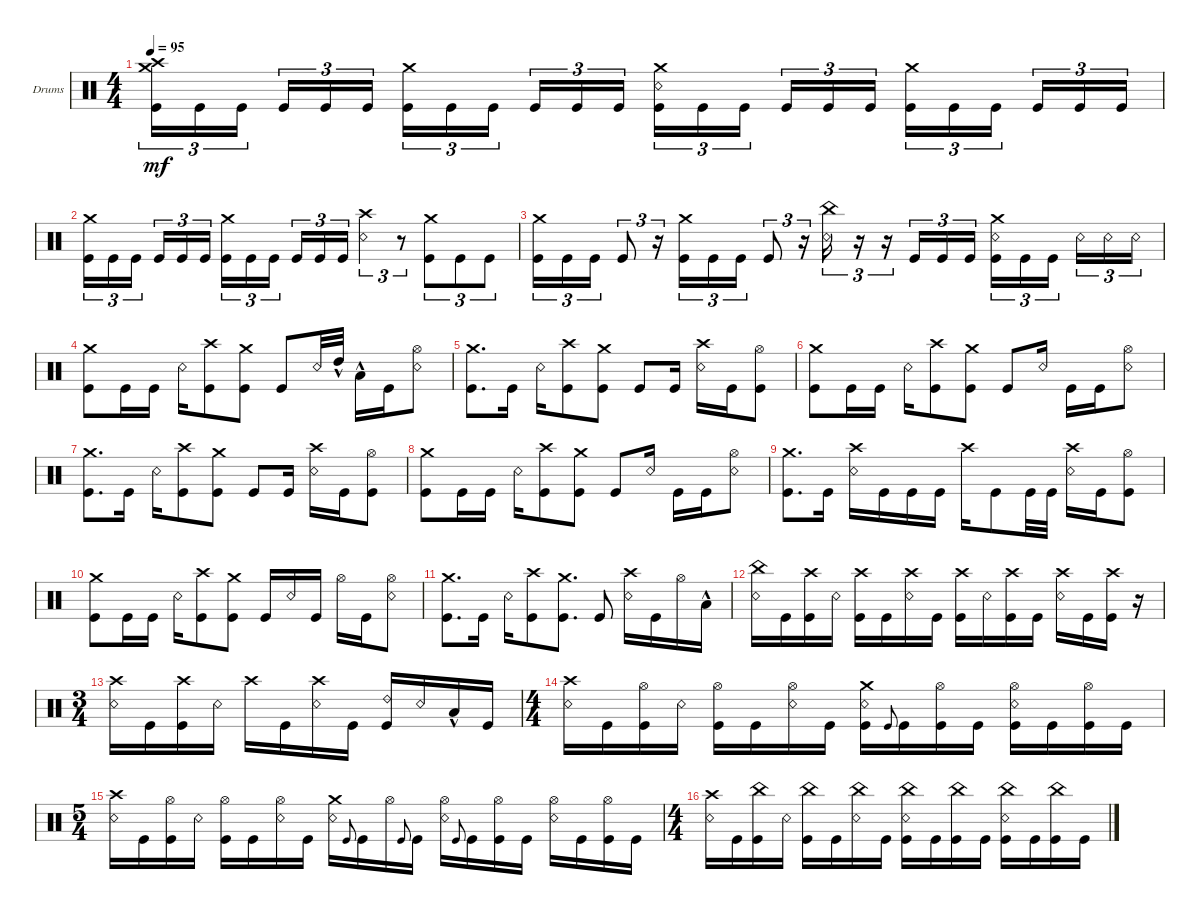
\defaultSystemsLayout 4
\bracketExtendMode groupsimilarinstruments
\firstSystemTrackNameOrientation horizontal
\otherSystemsTrackNameOrientation horizontal
\track ("Drumkit" "Drums") {instrument percussion}
\staff {score}
\articulation defaults
\ts (4 4)
\tempo 95
\clef neutral
\ks c
("Crash high (hit)" "Crash medium (hit)" "Kick (hit)").16{tu (3 2) dy mf} "Kick (hit)".16{tu (3 2)} "Kick (hit)".16{tu (3 2)} "Kick (hit)".16{tu (3 2)} "Kick (hit)".16{tu (3 2)} "Kick (hit)".16{tu (3 2)} ("Kick (hit)" "Crash medium (hit)").16{tu (3 2)} "Kick (hit)".16{tu (3 2)} "Kick (hit)".16{tu (3 2)} "Kick (hit)".16{tu (3 2)} "Kick (hit)".16{tu (3 2)} "Kick (hit)".16{tu (3 2)} ("Crash medium (hit)" "Kick (hit)" "Snare (rim shot)").16{tu (3 2)} "Kick (hit)".16{tu (3 2)} "Kick (hit)".16{tu (3 2)} "Kick (hit)".16{tu (3 2)} "Kick (hit)".16{tu (3 2)} "Kick (hit)".16{tu (3 2)} ("Kick (hit)" "Crash medium (hit)").16{tu (3 2)} "Kick (hit)".16{tu (3 2)} "Kick (hit)".16{tu (3 2)} "Kick (hit)".16{tu (3 2)} "Kick (hit)".16{tu (3 2)} "Kick (hit)".16{tu (3 2)} |
("Crash medium (hit)" "Kick (hit)").16{tu (3 2)} "Kick (hit)".16{tu (3 2)} "Kick (hit)".16{tu (3 2)} "Kick (hit)".16{tu (3 2)} "Kick (hit)".16{tu (3 2)} "Kick (hit)".16{tu (3 2)} ("Crash medium (hit)" "Kick (hit)").16{tu (3 2)} "Kick (hit)".16{tu (3 2)} "Kick (hit)".16{tu (3 2)} "Kick (hit)".16{tu (3 2)} "Kick (hit)".16{tu (3 2)} "Kick (hit)".16{tu (3 2)} ("Snare (rim shot)" "Crash high (hit)").4{tu (3 2)} r.8{tu (3 2)} ("Kick (hit)" "Crash medium (hit)").8{tu (3 2)} "Kick (hit)".8{tu (3 2)} "Kick (hit)".8{tu (3 2)} |
("Kick (hit)" "Crash medium (hit)").16{tu (3 2)} "Kick (hit)".16{tu (3 2)} "Kick (hit)".16{tu (3 2)} "Kick (hit)".8{tu (3 2)} r.16{tu (3 2)} ("Kick (hit)" "Crash medium (hit)").16{tu (3 2)} "Kick (hit)".16{tu (3 2)} "Kick (hit)".16{tu (3 2)} "Kick (hit)".8{tu (3 2)} r.16{tu (3 2)} ("Snare (rim shot)" "China (hit)").16{tu (3 2)} r.16{tu (3 2)} r.16{tu (3 2)} "Kick (hit)".16{tu (3 2)} "Kick (hit)".16{tu (3 2)} "Kick (hit)".16{tu (3 2)} ("Kick (hit)" "Crash medium (hit)" "Snare (rim shot)").16{tu (3 2)} "Kick (hit)".16{tu (3 2)} "Kick (hit)".16{tu (3 2)} "Snare (rim shot)".16{tu (3 2)} "Snare (rim shot)".16{tu (3 2)} "Snare (rim shot)".16{tu (3 2)} |
("Kick (hit)" "Crash medium (hit)").8 "Kick (hit)".16 "Kick (hit)".16 "Snare (rim shot)".16 ("Kick (hit)" "Crash high (hit)").8 ("Kick (hit)" "Crash medium (hit)").8 "Kick (hit)".8 "Snare (rim shot)".32 "High Tom (hit)"{hac}.32 "Low Tom (hit)"{hac}.16 "Kick (hit)".16 ("Snare (rim shot)" "Hi-Hat (open)").8 |
("Kick (hit)" "Crash medium (hit)").8{d} "Kick (hit)".16 "Snare (rim shot)".16 ("Kick (hit)" "Crash high (hit)").8 ("Kick (hit)" "Crash medium (hit)").8 "Kick (hit)".8 "Kick (hit)".16 ("Snare (rim shot)" "Crash high (hit)").16 "Kick (hit)".16 ("Hi-Hat (open)" "Kick (hit)").8 |
("Kick (hit)" "Crash medium (hit)").8 "Kick (hit)".16 "Kick (hit)".16 "Snare (rim shot)".16 ("Kick (hit)" "Crash high (hit)").8 ("Kick (hit)" "Crash medium (hit)").8 "Kick (hit)".8 "Snare (rim shot)".16 "Kick (hit)".16 "Kick (hit)".16 ("Snare (rim shot)" "Hi-Hat (open)").8 |
("Kick (hit)" "Crash medium (hit)").8{d} "Kick (hit)".16 "Snare (rim shot)".16 ("Kick (hit)" "Crash high (hit)").8 ("Kick (hit)" "Crash medium (hit)").8 "Kick (hit)".8 "Kick (hit)".16 ("Snare (rim shot)" "Crash high (hit)").16 "Kick (hit)".16 ("Hi-Hat (open)" "Kick (hit)").8 |
("Kick (hit)" "Crash medium (hit)").8 "Kick (hit)".16 "Kick (hit)".16 "Snare (rim shot)".16 ("Kick (hit)" "Crash high (hit)").8 ("Kick (hit)" "Crash medium (hit)").8 "Kick (hit)".8 "Snare (rim shot)".16 "Kick (hit)".16 "Kick (hit)".16 ("Snare (rim shot)" "Hi-Hat (open)").8 |
("Kick (hit)" "Crash medium (hit)").8{d} "Kick (hit)".16 ("Snare (rim shot)" "Crash high (hit)").16 "Kick (hit)".16 "Kick (hit)".16 "Kick (hit)".16 "Crash high (hit)".16 "Kick (hit)".8 "Kick (hit)".32 "Kick (hit)".32 ("Snare (rim shot)" "Crash high (hit)").16 "Kick (hit)".16 ("Hi-Hat (open)" "Kick (hit)").8 |
("Kick (hit)" "Crash medium (hit)").8 "Kick (hit)".16 "Kick (hit)".16 "Snare (rim shot)".16 ("Kick (hit)" "Crash high (hit)").8 ("Kick (hit)" "Crash medium (hit)").8 "Kick (hit)".16 "Snare (rim shot)".16 "Kick (hit)".16 "Hi-Hat (open)".16 "Kick (hit)".16 ("Snare (rim shot)" "Hi-Hat (open)").8 |
("Kick (hit)" "Crash medium (hit)").8{d} "Kick (hit)".16 "Snare (rim shot)".16 ("Kick (hit)" "Crash high (hit)").8 ("Kick (hit)" "Crash medium (hit)").8{d} "Kick (hit)".8 ("Crash high (hit)" "Snare (rim shot)").16 "Kick (hit)".16 "Hi-Hat (open)".16 "Low Tom (hit)"{hac}.16 |
("Snare (rim shot)" "China (hit)").16 "Kick (hit)".16 ("Kick (hit)" "Crash high (hit)").16 "Snare (rim shot)".16 ("Kick (hit)" "Crash high (hit)").16 "Kick (hit)".16 ("Snare (rim shot)" "Crash high (hit)").16 "Kick (hit)".16 ("Kick (hit)" "Crash high (hit)").16 "Snare (rim shot)".16 ("Kick (hit)" "Crash high (hit)").16 "Kick (hit)".16 ("Snare (rim shot)" "Crash high (hit)").16 "Kick (hit)".16 ("Kick (hit)" "Crash high (hit)").16 r.16 |
\ts (3 4)
("Snare (rim shot)" "Crash high (hit)").16 "Kick (hit)".16 ("Kick (hit)" "Crash high (hit)").16 "Snare (rim shot)".16 "Crash high (hit)".16 "Kick (hit)".16 ("Snare (rim shot)" "Crash high (hit)").16 "Kick (hit)".16 ("Kick (hit)" "Ride (bell) 2").16 "Snare (rim shot)".16 "Low Tom (hit)"{hac}.16 "Kick (hit)".16 |
\ts (4 4)
("Snare (rim shot)" "Crash high (hit)").16 "Kick (hit)".16 ("Kick (hit)" "Hi-Hat (open)").16 "Snare (rim shot)".16 ("Hi-Hat (open)" "Kick (hit)").16 "Kick (hit)".16 ("Snare (rim shot)" "Hi-Hat (open)").16 "Kick (hit)".16 ("Kick (hit)" "Snare (rim shot)" "Crash medium (hit)").16 "Kick (hit)".8{gr onbeat} "Kick (hit)".16 ("Hi-Hat (open)" "Kick (hit)").16 "Kick (hit)".16 ("Snare (rim shot)" "Hi-Hat (open)" "Kick (hit)").16 "Kick (hit)".16 ("Hi-Hat (open)" "Kick (hit)").16 "Kick (hit)".16 |
\ts (5 4)
("Snare (rim shot)" "Crash high (hit)").16 "Kick (hit)".16 ("Kick (hit)" "Hi-Hat (open)").16 "Snare (rim shot)".16 ("Hi-Hat (open)" "Kick (hit)").16 "Kick (hit)".16 ("Snare (rim shot)" "Hi-Hat (open)").16 "Kick (hit)".16 ("Snare (rim shot)" "Crash medium (hit)").16 "Kick (hit)".8{gr onbeat} "Kick (hit)".16 "Hi-Hat (open)".16 "Kick (hit)".8{gr onbeat} "Kick (hit)".16 ("Snare (rim shot)" "Hi-Hat (open)").16 "Kick (hit)".8{gr onbeat} "Kick (hit)".16 ("Hi-Hat (open)" "Kick (hit)").16 "Kick (hit)".16 ("Snare (rim shot)" "Hi-Hat (open)").16 "Kick (hit)".16 ("Hi-Hat (open)" "Kick (hit)").16 "Kick (hit)".16 |
\ts (4 4)
("Snare (rim shot)" "Crash high (hit)").16 "Kick (hit)".16 ("Kick (hit)" "China (hit)").16 "Snare (rim shot)".16 ("Kick (hit)" "China (hit)").16 "Kick (hit)".16 ("Snare (rim shot)" "China (hit)").16 "Kick (hit)".16 ("Kick (hit)" "Snare (rim shot)" "China (hit)").16 "Kick (hit)".16 ("Kick (hit)" "China (hit)").16 "Kick (hit)".16 ("Snare (rim shot)" "Kick (hit)" "China (hit)").16 "Kick (hit)".16 ("Kick (hit)" "China (hit)").16 "Kick (hit)".16
